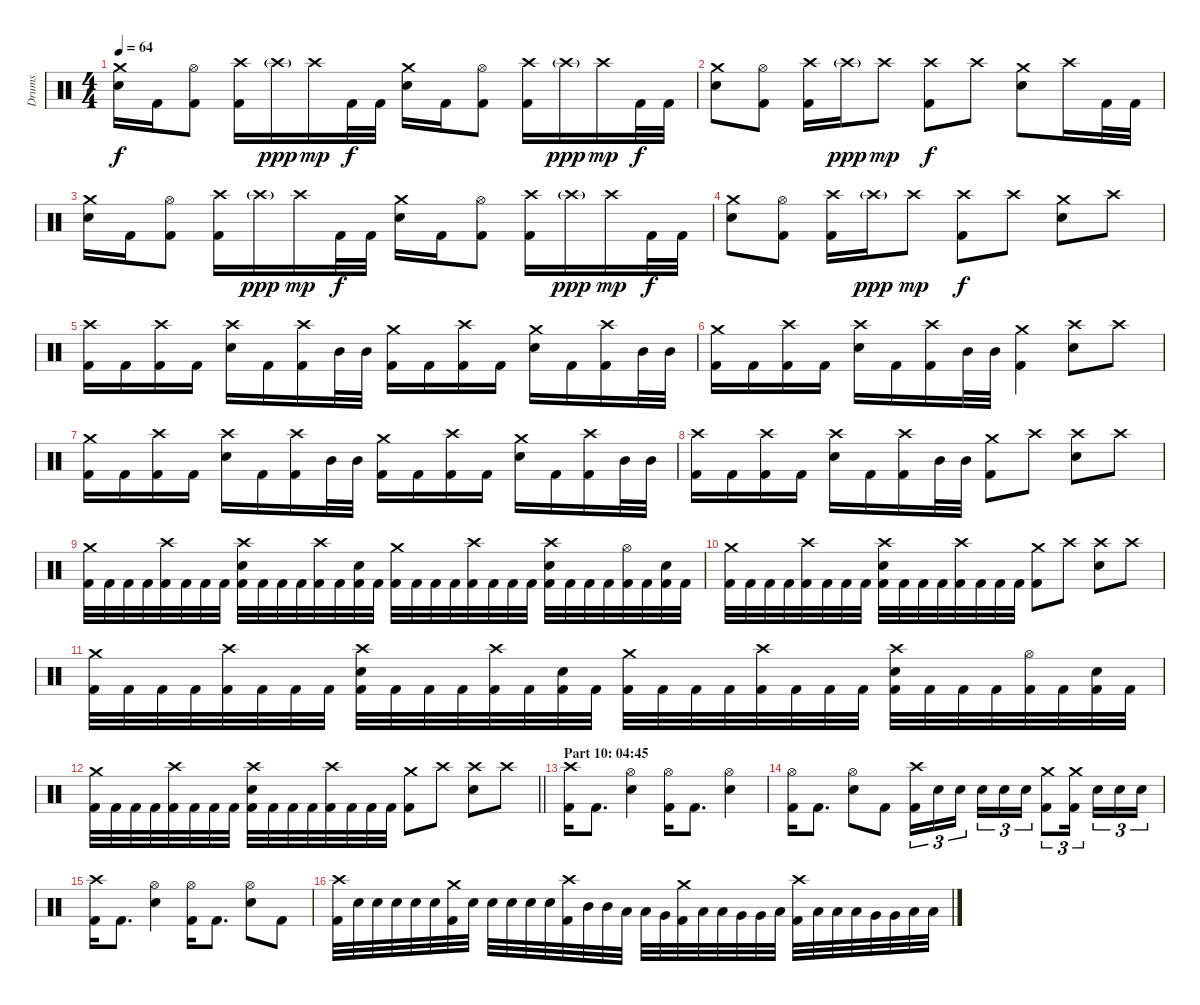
\track ("Drums" "Drums") {instrument percussion}
\staff {score}
\articulation defaults
\ts (4 4)
\tempo 64
\clef neutral
\ks c
("Crash medium (hit)" "Electric Snare (hit)").16{dy f} "Kick (hit) 2".16 ("Hi-Hat (open)" "Kick (hit) 2").8 ("Crash high (hit)" "Kick (hit) 2").16 "Crash high (hit)"{g}.16{dy ppp} "Crash high (hit)".16{dy mp} "Kick (hit) 2".32{dy f} "Kick (hit) 2".32 ("Crash medium (hit)" "Electric Snare (hit)").16 "Kick (hit) 2".16 ("Hi-Hat (open)" "Kick (hit) 2").8 ("Crash high (hit)" "Kick (hit) 2").16 "Crash high (hit)"{g}.16{dy ppp} "Crash high (hit)".16{dy mp} "Kick (hit) 2".32{dy f} "Kick (hit) 2".32 |
("Crash medium (hit)" "Electric Snare (hit)").8 ("Hi-Hat (open)" "Kick (hit) 2").8 ("Crash high (hit)" "Kick (hit) 2").16 "Crash high (hit)"{g}.16{dy ppp} "Crash high (hit)".8{dy mp} ("Crash high (hit)" "Kick (hit) 2").8{dy f} "Crash high (hit)".8 ("Crash medium (hit)" "Electric Snare (hit)").8 "Crash high (hit)".16 "Kick (hit) 2".32 "Kick (hit) 2".32 |
("Crash medium (hit)" "Electric Snare (hit)").16 "Kick (hit) 2".16 ("Hi-Hat (open)" "Kick (hit) 2").8 ("Crash high (hit)" "Kick (hit) 2").16 "Crash high (hit)"{g}.16{dy ppp} "Crash high (hit)".16{dy mp} "Kick (hit) 2".32{dy f} "Kick (hit) 2".32 ("Crash medium (hit)" "Electric Snare (hit)").16 "Kick (hit) 2".16 ("Hi-Hat (open)" "Kick (hit) 2").8 ("Crash high (hit)" "Kick (hit) 2").16 "Crash high (hit)"{g}.16{dy ppp} "Crash high (hit)".16{dy mp} "Kick (hit) 2".32{dy f} "Kick (hit) 2".32 |
("Crash medium (hit)" "Electric Snare (hit)").8 ("Hi-Hat (open)" "Kick (hit) 2").8 ("Crash high (hit)" "Kick (hit) 2").16 "Crash high (hit)"{g}.16{dy ppp} "Crash high (hit)".8{dy mp} ("Crash high (hit)" "Kick (hit) 2").8{dy f} "Crash high (hit)".8 ("Crash medium (hit)" "Electric Snare (hit)").8 "Crash high (hit)".8 |
("Crash high (hit)" "Kick (hit) 2").16 "Kick (hit) 2".16 ("Crash high (hit)" "Kick (hit) 2").16 "Kick (hit) 2".16 ("Crash high (hit)" "Electric Snare (hit)").16 "Kick (hit) 2".16 ("Crash high (hit)" "Kick (hit) 2").16 "Mid Tom (hit)".32 "Mid Tom (hit)".32 ("Crash medium (hit)" "Kick (hit) 2").16 "Kick (hit) 2".16 ("Crash high (hit)" "Kick (hit) 2").16 "Kick (hit) 2".16 ("Crash medium (hit)" "Electric Snare (hit)").16 "Kick (hit) 2".16 ("Crash high (hit)" "Kick (hit) 2").16 "Mid Tom (hit)".32 "Mid Tom (hit)".32 |
("Crash medium (hit)" "Kick (hit) 2").16 "Kick (hit) 2".16 ("Crash high (hit)" "Kick (hit) 2").16 "Kick (hit) 2".16 ("Crash high (hit)" "Electric Snare (hit)").16 "Kick (hit) 2".16 ("Crash high (hit)" "Kick (hit) 2").16 "Mid Tom (hit)".32 "Mid Tom (hit)".32 ("Crash medium (hit)" "Kick (hit) 2").4 ("Crash high (hit)" "Electric Snare (hit)").8 "Crash high (hit)".8 |
("Crash medium (hit)" "Kick (hit) 2").16 "Kick (hit) 2".16 ("Crash high (hit)" "Kick (hit) 2").16 "Kick (hit) 2".16 ("Crash high (hit)" "Electric Snare (hit)").16 "Kick (hit) 2".16 ("Crash high (hit)" "Kick (hit) 2").16 "Mid Tom (hit)".32 "Mid Tom (hit)".32 ("Crash medium (hit)" "Kick (hit) 2").16 "Kick (hit) 2".16 ("Crash high (hit)" "Kick (hit) 2").16 "Kick (hit) 2".16 ("Crash medium (hit)" "Electric Snare (hit)").16 "Kick (hit) 2".16 ("Crash high (hit)" "Kick (hit) 2").16 "Mid Tom (hit)".32 "Mid Tom (hit)".32 |
("Crash high (hit)" "Kick (hit) 2").16 "Kick (hit) 2".16 ("Crash high (hit)" "Kick (hit) 2").16 "Kick (hit) 2".16 ("Crash high (hit)" "Electric Snare (hit)").16 "Kick (hit) 2".16 ("Crash high (hit)" "Kick (hit) 2").16 "Mid Tom (hit)".32 "Mid Tom (hit)".32 ("Crash medium (hit)" "Kick (hit) 2").8 "Crash high (hit)".8 ("Crash high (hit)" "Electric Snare (hit)").8 "Crash high (hit)".8 |
("Crash medium (hit)" "Kick (hit) 2").32 "Kick (hit) 2".32 "Kick (hit) 2".32 "Kick (hit) 2".32 ("Crash high (hit)" "Kick (hit) 2").32 "Kick (hit) 2".32 "Kick (hit) 2".32 "Kick (hit) 2".32 ("Crash high (hit)" "Electric Snare (hit)" "Kick (hit) 2").32 "Kick (hit) 2".32 "Kick (hit) 2".32 "Kick (hit) 2".32 ("Crash high (hit)" "Kick (hit) 2").32 "Kick (hit) 2".32 ("Electric Snare (hit)" "Kick (hit) 2").32 "Kick (hit) 2".32 ("Crash medium (hit)" "Kick (hit) 2").32 "Kick (hit) 2".32 "Kick (hit) 2".32 "Kick (hit) 2".32 ("Crash high (hit)" "Kick (hit) 2").32 "Kick (hit) 2".32 "Kick (hit) 2".32 "Kick (hit) 2".32 ("Crash high (hit)" "Electric Snare (hit)" "Kick (hit) 2").32 "Kick (hit) 2".32 "Kick (hit) 2".32 "Kick (hit) 2".32 ("Hi-Hat (open)" "Kick (hit) 2").32 "Kick (hit) 2".32 ("Electric Snare (hit)" "Kick (hit) 2").32 "Kick (hit) 2".32 |
("Crash medium (hit)" "Kick (hit) 2").32 "Kick (hit) 2".32 "Kick (hit) 2".32 "Kick (hit) 2".32 ("Crash high (hit)" "Kick (hit) 2").32 "Kick (hit) 2".32 "Kick (hit) 2".32 "Kick (hit) 2".32 ("Crash high (hit)" "Electric Snare (hit)" "Kick (hit) 2").32 "Kick (hit) 2".32 "Kick (hit) 2".32 "Kick (hit) 2".32 ("Crash high (hit)" "Kick (hit) 2").32 "Kick (hit) 2".32 "Kick (hit) 2".32 "Kick (hit) 2".32 ("Crash medium (hit)" "Kick (hit) 2").8 "Crash high (hit)".8 ("Crash high (hit)" "Electric Snare (hit)").8 "Crash high (hit)".8 |
("Crash medium (hit)" "Kick (hit) 2").32 "Kick (hit) 2".32 "Kick (hit) 2".32 "Kick (hit) 2".32 ("Crash high (hit)" "Kick (hit) 2").32 "Kick (hit) 2".32 "Kick (hit) 2".32 "Kick (hit) 2".32 ("Crash high (hit)" "Electric Snare (hit)" "Kick (hit) 2").32 "Kick (hit) 2".32 "Kick (hit) 2".32 "Kick (hit) 2".32 ("Crash high (hit)" "Kick (hit) 2").32 "Kick (hit) 2".32 ("Electric Snare (hit)" "Kick (hit) 2").32 "Kick (hit) 2".32 ("Crash medium (hit)" "Kick (hit) 2").32 "Kick (hit) 2".32 "Kick (hit) 2".32 "Kick (hit) 2".32 ("Crash high (hit)" "Kick (hit) 2").32 "Kick (hit) 2".32 "Kick (hit) 2".32 "Kick (hit) 2".32 ("Crash high (hit)" "Electric Snare (hit)" "Kick (hit) 2").32 "Kick (hit) 2".32 "Kick (hit) 2".32 "Kick (hit) 2".32 ("Hi-Hat (open)" "Kick (hit) 2").32 "Kick (hit) 2".32 ("Electric Snare (hit)" "Kick (hit) 2").32 "Kick (hit) 2".32 |
\barLineRight lightlight
("Crash medium (hit)" "Kick (hit) 2").32 "Kick (hit) 2".32 "Kick (hit) 2".32 "Kick (hit) 2".32 ("Crash high (hit)" "Kick (hit) 2").32 "Kick (hit) 2".32 "Kick (hit) 2".32 "Kick (hit) 2".32 ("Crash high (hit)" "Electric Snare (hit)" "Kick (hit) 2").32 "Kick (hit) 2".32 "Kick (hit) 2".32 "Kick (hit) 2".32 ("Crash high (hit)" "Kick (hit) 2").32 "Kick (hit) 2".32 "Kick (hit) 2".32 "Kick (hit) 2".32 ("Crash medium (hit)" "Kick (hit) 2").8 "Crash high (hit)".8 ("Crash high (hit)" "Electric Snare (hit)").8 "Crash high (hit)".8 |
\section ("" "Part 10: 04:45")
("Crash high (hit)" "Kick (hit) 2").16 "Kick (hit) 2".8{d} ("Hi-Hat (open)" "Electric Snare (hit)").4 ("Hi-Hat (open)" "Kick (hit) 2").16 "Kick (hit) 2".8{d} ("Hi-Hat (open)" "Electric Snare (hit)").4 |
("Hi-Hat (open)" "Kick (hit) 2").16 "Kick (hit) 2".8{d} ("Hi-Hat (open)" "Electric Snare (hit)").8 "Kick (hit) 2".8 ("Crash high (hit)" "Kick (hit) 2").16{tu (3 2)} "Electric Snare (hit)".16{tu (3 2)} "Electric Snare (hit)".16{tu (3 2) beam splitsecondary} "Electric Snare (hit)".16{tu (3 2)} "Electric Snare (hit)".16{tu (3 2)} "Electric Snare (hit)".16{tu (3 2)} ("Crash medium (hit)" "Kick (hit) 2").8{tu (3 2)} ("Crash medium (hit)" "Kick (hit) 2").16{tu (3 2) beam splitsecondary} "Electric Snare (hit)".16{tu (3 2)} "Electric Snare (hit)".16{tu (3 2)} "Electric Snare (hit)".16{tu (3 2)} |
("Crash high (hit)" "Kick (hit) 2").16 "Kick (hit) 2".8{d} ("Hi-Hat (open)" "Electric Snare (hit)").4 ("Hi-Hat (open)" "Kick (hit) 2").16 "Kick (hit) 2".8{d} ("Hi-Hat (open)" "Electric Snare (hit)").8 "Kick (hit) 2".8 |
("Crash high (hit)" "Kick (hit) 2").32 "Electric Snare (hit)".32 "Electric Snare (hit)".32 "Electric Snare (hit)".32 "Electric Snare (hit)".32 "Electric Snare (hit)".32 ("Crash medium (hit)" "Kick (hit) 2").32 "Electric Snare (hit)".32 "Electric Snare (hit)".32 "Electric Snare (hit)".32 "Electric Snare (hit)".32 "Electric Snare (hit)".32 ("Crash high (hit)" "Kick (hit) 2").32 "Mid Tom (hit)".32 "Mid Tom (hit)".32 "Low Tom (hit)".32 "Low Tom (hit)".32 "Very Low Tom (hit)".32 ("Crash medium (hit)" "Kick (hit) 2").32 "Low Tom (hit)".32 "Low Tom (hit)".32 "Very Low Tom (hit)".32 "Very Low Tom (hit)".32 "Low Floor Tom (hit)".32 ("Crash high (hit)" "Kick (hit) 2").32 "Low Tom (hit)".32 "Low Tom (hit)".32 "Low Tom (hit)".32 "Very Low Tom (hit)".32 "Very Low Tom (hit)".32 "Low Floor Tom (hit)".32 "Low Floor Tom (hit)".32
